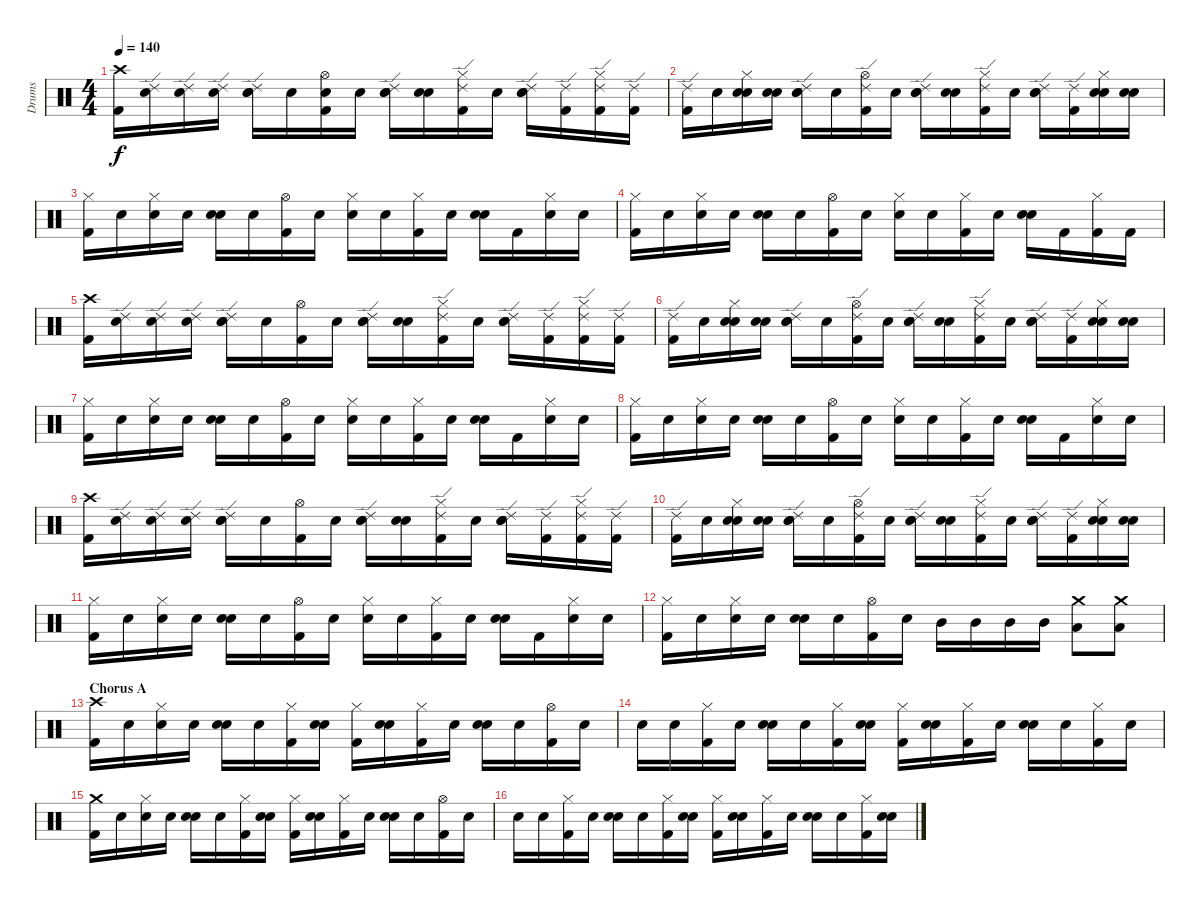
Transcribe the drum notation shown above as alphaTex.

\track ("Drums" "Drums") {instrument percussion}
\staff {score}
\articulation defaults
\ts (4 4)
\tempo 140
\clef neutral
\ks c
("Kick (hit) 2" "Crash high (hit)").16{dy f} ("Snare (hit)" "Ride (edge) 2").16 ("Snare (hit)" "Ride (edge) 2").16 ("Snare (hit)" "Ride (edge) 2").16 ("Snare (hit)" "Electric Snare (hit)" "Ride (edge) 2").16 "Snare (hit)".16 ("Kick (hit) 2" "Hi-Hat (open)" "Snare (hit)").16 "Snare (hit)".16 ("Snare (hit)" "Snare (hit)" "Ride (edge) 2").16 ("Snare (hit)" "Snare (hit)").16 ("Kick (hit) 2" "Hi-Hat (closed)" "Ride (edge) 2").16 "Snare (hit)".16 ("Snare (hit)" "Electric Snare (hit)" "Ride (edge) 2").16 ("Kick (hit) 2" "Ride (edge) 2").16 ("Kick (hit) 2" "Hi-Hat (closed)" "Ride (edge) 2").16 ("Kick (hit) 2" "Ride (edge) 2").16 |
("Kick (hit) 2" "Ride (edge) 2").16 "Snare (hit)".16 ("Snare (hit)" "Hi-Hat (closed)" "Snare (hit)").16 ("Snare (hit)" "Snare (hit)").16 ("Snare (hit)" "Electric Snare (hit)" "Ride (edge) 2").16 "Snare (hit)".16 ("Kick (hit) 2" "Hi-Hat (open)" "Ride (edge) 2").16 "Snare (hit)".16 ("Snare (hit)" "Snare (hit)" "Ride (edge) 2").16 ("Snare (hit)" "Snare (hit)").16 ("Kick (hit) 2" "Hi-Hat (closed)" "Ride (edge) 2").16 "Snare (hit)".16 ("Snare (hit)" "Electric Snare (hit)" "Ride (edge) 2").16 ("Kick (hit) 2" "Ride (edge) 2").16 ("Snare (hit)" "Hi-Hat (closed)" "Snare (hit)").16 ("Snare (hit)" "Snare (hit)").16 |
("Kick (hit) 2" "Hi-Hat (closed)").16 "Snare (hit)".16 ("Snare (hit)" "Hi-Hat (closed)").16 "Snare (hit)".16 ("Snare (hit)" "Electric Snare (hit)").16 "Snare (hit)".16 ("Kick (hit) 2" "Hi-Hat (open)").16 "Snare (hit)".16 ("Snare (hit)" "Hi-Hat (closed)").16 "Snare (hit)".16 ("Kick (hit) 2" "Hi-Hat (closed)").16 "Snare (hit)".16 ("Snare (hit)" "Electric Snare (hit)").16 "Kick (hit) 2".16 ("Snare (hit)" "Hi-Hat (closed)").16 "Snare (hit)".16 |
("Kick (hit) 2" "Hi-Hat (closed)").16 "Snare (hit)".16 ("Snare (hit)" "Hi-Hat (closed)").16 "Snare (hit)".16 ("Snare (hit)" "Electric Snare (hit)").16 "Snare (hit)".16 ("Kick (hit) 2" "Hi-Hat (open)").16 "Snare (hit)".16 ("Snare (hit)" "Hi-Hat (closed)").16 "Snare (hit)".16 ("Kick (hit) 2" "Hi-Hat (closed)").16 "Snare (hit)".16 ("Snare (hit)" "Electric Snare (hit)").16 "Kick (hit) 2".16 ("Kick (hit) 2" "Hi-Hat (closed)").16 "Kick (hit) 2".16 |
("Kick (hit) 2" "Crash high (hit)").16 ("Snare (hit)" "Ride (edge) 2").16 ("Snare (hit)" "Ride (edge) 2").16 ("Snare (hit)" "Ride (edge) 2").16 ("Snare (hit)" "Electric Snare (hit)" "Ride (edge) 2").16 "Snare (hit)".16 ("Kick (hit) 2" "Hi-Hat (open)").16 "Snare (hit)".16 ("Snare (hit)" "Snare (hit)" "Ride (edge) 2").16 ("Snare (hit)" "Snare (hit)").16 ("Kick (hit) 2" "Hi-Hat (closed)" "Ride (edge) 2").16 "Snare (hit)".16 ("Snare (hit)" "Electric Snare (hit)" "Ride (edge) 2").16 ("Kick (hit) 2" "Ride (edge) 2").16 ("Kick (hit) 2" "Hi-Hat (closed)" "Ride (edge) 2").16 ("Kick (hit) 2" "Ride (edge) 2").16 |
("Kick (hit) 2" "Ride (edge) 2").16 "Snare (hit)".16 ("Snare (hit)" "Hi-Hat (closed)" "Snare (hit)").16 ("Snare (hit)" "Snare (hit)").16 ("Snare (hit)" "Electric Snare (hit)" "Ride (edge) 2").16 "Snare (hit)".16 ("Kick (hit) 2" "Hi-Hat (open)" "Ride (edge) 2").16 "Snare (hit)".16 ("Snare (hit)" "Snare (hit)" "Ride (edge) 2").16 ("Snare (hit)" "Snare (hit)").16 ("Kick (hit) 2" "Hi-Hat (closed)" "Ride (edge) 2").16 "Snare (hit)".16 ("Snare (hit)" "Electric Snare (hit)" "Ride (edge) 2").16 ("Kick (hit) 2" "Ride (edge) 2").16 ("Snare (hit)" "Hi-Hat (closed)" "Snare (hit)").16 ("Snare (hit)" "Snare (hit)").16 |
("Kick (hit) 2" "Hi-Hat (closed)").16 "Snare (hit)".16 ("Snare (hit)" "Hi-Hat (closed)").16 "Snare (hit)".16 ("Snare (hit)" "Electric Snare (hit)").16 "Snare (hit)".16 ("Kick (hit) 2" "Hi-Hat (open)").16 "Snare (hit)".16 ("Snare (hit)" "Hi-Hat (closed)").16 "Snare (hit)".16 ("Kick (hit) 2" "Hi-Hat (closed)").16 "Snare (hit)".16 ("Snare (hit)" "Electric Snare (hit)").16 "Kick (hit) 2".16 ("Snare (hit)" "Hi-Hat (closed)").16 "Snare (hit)".16 |
("Kick (hit) 2" "Hi-Hat (closed)").16 "Snare (hit)".16 ("Snare (hit)" "Hi-Hat (closed)").16 "Snare (hit)".16 ("Snare (hit)" "Electric Snare (hit)").16 "Snare (hit)".16 ("Kick (hit) 2" "Hi-Hat (open)").16 "Snare (hit)".16 ("Snare (hit)" "Hi-Hat (closed)").16 "Snare (hit)".16 ("Kick (hit) 2" "Hi-Hat (closed)").16 "Snare (hit)".16 ("Snare (hit)" "Electric Snare (hit)").16 "Kick (hit) 2".16 ("Snare (hit)" "Hi-Hat (closed)").16 "Snare (hit)".16 |
("Kick (hit) 2" "Crash high (hit)").16 ("Snare (hit)" "Ride (edge) 2").16 ("Snare (hit)" "Ride (edge) 2").16 ("Snare (hit)" "Ride (edge) 2").16 ("Snare (hit)" "Electric Snare (hit)" "Ride (edge) 2").16 "Snare (hit)".16 ("Kick (hit) 2" "Hi-Hat (open)").16 "Snare (hit)".16 ("Snare (hit)" "Snare (hit)" "Ride (edge) 2").16 ("Snare (hit)" "Snare (hit)").16 ("Kick (hit) 2" "Hi-Hat (closed)" "Ride (edge) 2").16 "Snare (hit)".16 ("Snare (hit)" "Electric Snare (hit)" "Ride (edge) 2").16 ("Kick (hit) 2" "Ride (edge) 2").16 ("Kick (hit) 2" "Hi-Hat (closed)" "Ride (edge) 2").16 ("Kick (hit) 2" "Ride (edge) 2").16 |
("Kick (hit) 2" "Ride (edge) 2").16 "Snare (hit)".16 ("Snare (hit)" "Hi-Hat (closed)" "Snare (hit)").16 ("Snare (hit)" "Snare (hit)").16 ("Snare (hit)" "Electric Snare (hit)" "Ride (edge) 2").16 "Snare (hit)".16 ("Kick (hit) 2" "Hi-Hat (open)" "Ride (edge) 2").16 "Snare (hit)".16 ("Snare (hit)" "Snare (hit)" "Ride (edge) 2").16 ("Snare (hit)" "Snare (hit)").16 ("Kick (hit) 2" "Hi-Hat (closed)" "Ride (edge) 2").16 "Snare (hit)".16 ("Snare (hit)" "Electric Snare (hit)" "Ride (edge) 2").16 ("Kick (hit) 2" "Ride (edge) 2").16 ("Snare (hit)" "Hi-Hat (closed)" "Snare (hit)").16 ("Snare (hit)" "Snare (hit)").16 |
("Kick (hit) 2" "Hi-Hat (closed)").16 "Snare (hit)".16 ("Snare (hit)" "Hi-Hat (closed)").16 "Snare (hit)".16 ("Snare (hit)" "Electric Snare (hit)").16 "Snare (hit)".16 ("Kick (hit) 2" "Hi-Hat (open)").16 "Snare (hit)".16 ("Snare (hit)" "Hi-Hat (closed)").16 "Snare (hit)".16 ("Kick (hit) 2" "Hi-Hat (closed)").16 "Snare (hit)".16 ("Snare (hit)" "Electric Snare (hit)").16 "Kick (hit) 2".16 ("Snare (hit)" "Hi-Hat (closed)").16 "Snare (hit)".16 |
("Kick (hit) 2" "Hi-Hat (closed)").16 "Snare (hit)".16 ("Snare (hit)" "Hi-Hat (closed)").16 "Snare (hit)".16 ("Snare (hit)" "Electric Snare (hit)").16 "Snare (hit)".16 ("Kick (hit) 2" "Hi-Hat (open)").16 "Snare (hit)".16 "Mid Tom (hit)".16 "Mid Tom (hit)".16 "Mid Tom (hit)".16 "Mid Tom (hit)".16 ("Low Tom (hit)" "Crash medium (hit)").8 ("Low Tom (hit)" "Crash medium (hit)").8 |
\section ("" "Chorus A")
("Kick (hit) 2" "Crash high (hit)").16 "Snare (hit)".16 ("Snare (hit)" "Hi-Hat (closed)").16 "Snare (hit)".16 ("Snare (hit)" "Electric Snare (hit)").16 "Snare (hit)".16 ("Kick (hit) 2" "Hi-Hat (closed)").16 ("Snare (hit)" "Electric Snare (hit)").16 ("Kick (hit) 2" "Hi-Hat (closed)").16 ("Snare (hit)" "Electric Snare (hit)").16 ("Kick (hit) 2" "Hi-Hat (closed)").16 "Snare (hit)".16 ("Snare (hit)" "Electric Snare (hit)").16 "Snare (hit)".16 ("Kick (hit) 2" "Hi-Hat (open)").16 "Snare (hit)".16 |
"Snare (hit)".16 "Snare (hit)".16 ("Kick (hit) 2" "Hi-Hat (closed)").16 "Snare (hit)".16 ("Snare (hit)" "Electric Snare (hit)").16 "Snare (hit)".16 ("Kick (hit) 2" "Hi-Hat (closed)").16 ("Snare (hit)" "Electric Snare (hit)").16 ("Kick (hit) 2" "Hi-Hat (closed)").16 ("Snare (hit)" "Electric Snare (hit)").16 ("Kick (hit) 2" "Hi-Hat (closed)").16 "Snare (hit)".16 ("Snare (hit)" "Electric Snare (hit)").16 "Snare (hit)".16 ("Kick (hit) 2" "Hi-Hat (closed)").16 "Snare (hit)".16 |
("Kick (hit) 2" "Crash medium (hit)").16 "Snare (hit)".16 ("Snare (hit)" "Hi-Hat (closed)").16 "Snare (hit)".16 ("Snare (hit)" "Electric Snare (hit)").16 "Snare (hit)".16 ("Kick (hit) 2" "Hi-Hat (closed)").16 ("Snare (hit)" "Electric Snare (hit)").16 ("Kick (hit) 2" "Hi-Hat (closed)").16 ("Snare (hit)" "Electric Snare (hit)").16 ("Kick (hit) 2" "Hi-Hat (closed)").16 "Snare (hit)".16 ("Snare (hit)" "Electric Snare (hit)").16 "Snare (hit)".16 ("Kick (hit) 2" "Hi-Hat (open)").16 "Snare (hit)".16 |
"Snare (hit)".16 "Snare (hit)".16 ("Kick (hit) 2" "Hi-Hat (closed)").16 "Snare (hit)".16 ("Snare (hit)" "Electric Snare (hit)").16 "Snare (hit)".16 ("Kick (hit) 2" "Hi-Hat (closed)").16 ("Snare (hit)" "Electric Snare (hit)").16 ("Kick (hit) 2" "Hi-Hat (closed)").16 ("Snare (hit)" "Electric Snare (hit)").16 ("Kick (hit) 2" "Hi-Hat (closed)").16 "Snare (hit)".16 ("Snare (hit)" "Electric Snare (hit)").16 "Snare (hit)".16 ("Kick (hit) 2" "Hi-Hat (closed)").16 ("Snare (hit)" "Electric Snare (hit)").16
